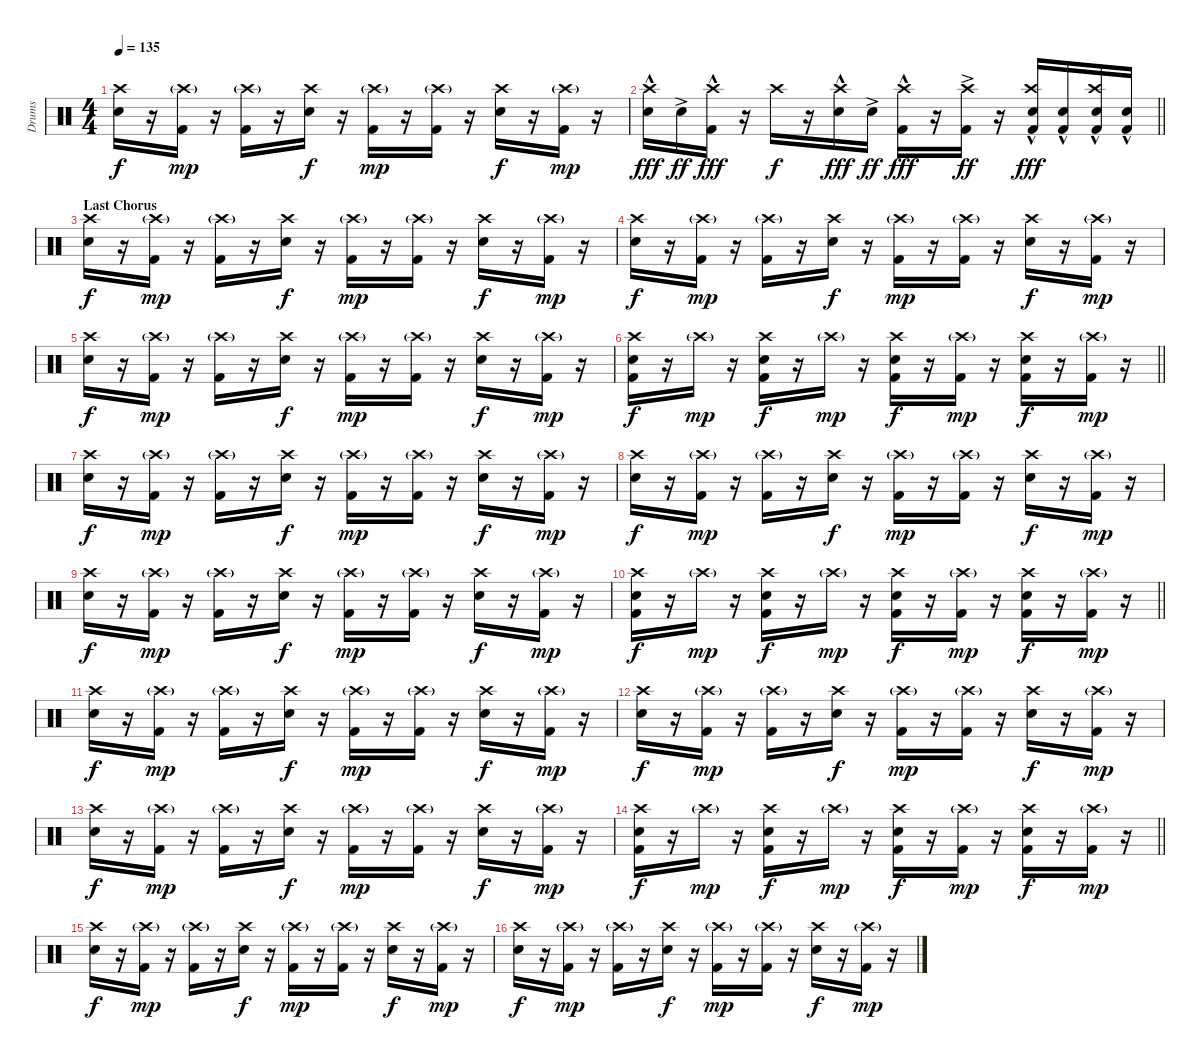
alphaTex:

\track ("Drums" "Drums") {instrument percussion}
\staff {score}
\articulation defaults
\ts (4 4)
\tempo 135
\clef neutral
\ks c
("Snare (hit) 2" "Crash high (hit)").16{dy f} r.16 ("Kick (hit) 2" "Crash high (hit)"{g}).16{dy mp} r.16 ("Kick (hit) 2" "Crash high (hit)"{g}).16 r.16 ("Snare (hit) 2" "Crash high (hit)").16{dy f} r.16 ("Kick (hit) 2" "Crash high (hit)"{g}).16{dy mp} r.16 ("Kick (hit) 2" "Crash high (hit)"{g}).16 r.16 ("Snare (hit) 2" "Crash high (hit)").16{dy f} r.16 ("Kick (hit) 2" "Crash high (hit)"{g}).16{dy mp} r.16 |
\barLineRight lightlight
("Snare (hit) 2"{hac} "Crash high (hit)").16{dy fff} "Snare (hit) 2"{ac}.16{dy ff} ("Kick (hit) 2"{hac} "Crash high (hit)").16{dy fff} r.16 "Crash high (hit)".16{dy f} r.16 ("Snare (hit) 2"{hac} "Crash high (hit)").16{dy fff} "Snare (hit) 2"{ac}.16{dy ff} ("Kick (hit) 2"{hac} "Crash high (hit)").16{dy fff} r.16 ("Kick (hit) 2"{ac} "Crash high (hit)").16{dy ff} r.16 ("Kick (hit) 2"{hac} "Snare (hit) 2"{hac} "Crash high (hit)").16{dy fff} ("Kick (hit) 2"{hac} "Snare (hit) 2"{hac}).16 ("Kick (hit) 2"{hac} "Snare (hit) 2"{hac} "Crash high (hit)").16 ("Kick (hit) 2"{hac} "Snare (hit) 2"{hac}).16 |
\section ("" "Last Chorus")
("Snare (hit) 2" "Crash high (hit)").16{dy f} r.16 ("Kick (hit) 2" "Crash high (hit)"{g}).16{dy mp} r.16 ("Kick (hit) 2" "Crash high (hit)"{g}).16 r.16 ("Snare (hit) 2" "Crash high (hit)").16{dy f} r.16 ("Kick (hit) 2" "Crash high (hit)"{g}).16{dy mp} r.16 ("Kick (hit) 2" "Crash high (hit)"{g}).16 r.16 ("Snare (hit) 2" "Crash high (hit)").16{dy f} r.16 ("Kick (hit) 2" "Crash high (hit)"{g}).16{dy mp} r.16 |
("Snare (hit) 2" "Crash high (hit)").16{dy f} r.16 ("Kick (hit) 2" "Crash high (hit)"{g}).16{dy mp} r.16 ("Kick (hit) 2" "Crash high (hit)"{g}).16 r.16 ("Snare (hit) 2" "Crash high (hit)").16{dy f} r.16 ("Kick (hit) 2" "Crash high (hit)"{g}).16{dy mp} r.16 ("Kick (hit) 2" "Crash high (hit)"{g}).16 r.16 ("Snare (hit) 2" "Crash high (hit)").16{dy f} r.16 ("Kick (hit) 2" "Crash high (hit)"{g}).16{dy mp} r.16 |
("Snare (hit) 2" "Crash high (hit)").16{dy f} r.16 ("Kick (hit) 2" "Crash high (hit)"{g}).16{dy mp} r.16 ("Kick (hit) 2" "Crash high (hit)"{g}).16 r.16 ("Snare (hit) 2" "Crash high (hit)").16{dy f} r.16 ("Kick (hit) 2" "Crash high (hit)"{g}).16{dy mp} r.16 ("Kick (hit) 2" "Crash high (hit)"{g}).16 r.16 ("Snare (hit) 2" "Crash high (hit)").16{dy f} r.16 ("Kick (hit) 2" "Crash high (hit)"{g}).16{dy mp} r.16 |
\barLineRight lightlight
("Kick (hit) 2" "Snare (hit) 2" "Crash high (hit)").16{dy f} r.16 "Crash high (hit)"{g}.16{dy mp} r.16 ("Kick (hit) 2" "Snare (hit) 2" "Crash high (hit)").16{dy f} r.16 "Crash high (hit)"{g}.16{dy mp} r.16 ("Kick (hit) 2" "Snare (hit) 2" "Crash high (hit)").16{dy f} r.16 ("Kick (hit) 2" "Crash high (hit)"{g}).16{dy mp} r.16 ("Kick (hit) 2" "Snare (hit) 2" "Crash high (hit)").16{dy f} r.16 ("Kick (hit) 2" "Crash high (hit)"{g}).16{dy mp} r.16 |
("Snare (hit) 2" "Crash high (hit)").16{dy f} r.16 ("Kick (hit) 2" "Crash high (hit)"{g}).16{dy mp} r.16 ("Kick (hit) 2" "Crash high (hit)"{g}).16 r.16 ("Snare (hit) 2" "Crash high (hit)").16{dy f} r.16 ("Kick (hit) 2" "Crash high (hit)"{g}).16{dy mp} r.16 ("Kick (hit) 2" "Crash high (hit)"{g}).16 r.16 ("Snare (hit) 2" "Crash high (hit)").16{dy f} r.16 ("Kick (hit) 2" "Crash high (hit)"{g}).16{dy mp} r.16 |
("Snare (hit) 2" "Crash high (hit)").16{dy f} r.16 ("Kick (hit) 2" "Crash high (hit)"{g}).16{dy mp} r.16 ("Kick (hit) 2" "Crash high (hit)"{g}).16 r.16 ("Snare (hit) 2" "Crash high (hit)").16{dy f} r.16 ("Kick (hit) 2" "Crash high (hit)"{g}).16{dy mp} r.16 ("Kick (hit) 2" "Crash high (hit)"{g}).16 r.16 ("Snare (hit) 2" "Crash high (hit)").16{dy f} r.16 ("Kick (hit) 2" "Crash high (hit)"{g}).16{dy mp} r.16 |
("Snare (hit) 2" "Crash high (hit)").16{dy f} r.16 ("Kick (hit) 2" "Crash high (hit)"{g}).16{dy mp} r.16 ("Kick (hit) 2" "Crash high (hit)"{g}).16 r.16 ("Snare (hit) 2" "Crash high (hit)").16{dy f} r.16 ("Kick (hit) 2" "Crash high (hit)"{g}).16{dy mp} r.16 ("Kick (hit) 2" "Crash high (hit)"{g}).16 r.16 ("Snare (hit) 2" "Crash high (hit)").16{dy f} r.16 ("Kick (hit) 2" "Crash high (hit)"{g}).16{dy mp} r.16 |
\barLineRight lightlight
("Kick (hit) 2" "Snare (hit) 2" "Crash high (hit)").16{dy f} r.16 "Crash high (hit)"{g}.16{dy mp} r.16 ("Kick (hit) 2" "Snare (hit) 2" "Crash high (hit)").16{dy f} r.16 "Crash high (hit)"{g}.16{dy mp} r.16 ("Kick (hit) 2" "Snare (hit) 2" "Crash high (hit)").16{dy f} r.16 ("Kick (hit) 2" "Crash high (hit)"{g}).16{dy mp} r.16 ("Kick (hit) 2" "Snare (hit) 2" "Crash high (hit)").16{dy f} r.16 ("Kick (hit) 2" "Crash high (hit)"{g}).16{dy mp} r.16 |
("Snare (hit) 2" "Crash high (hit)").16{dy f} r.16 ("Kick (hit) 2" "Crash high (hit)"{g}).16{dy mp} r.16 ("Kick (hit) 2" "Crash high (hit)"{g}).16 r.16 ("Snare (hit) 2" "Crash high (hit)").16{dy f} r.16 ("Kick (hit) 2" "Crash high (hit)"{g}).16{dy mp} r.16 ("Kick (hit) 2" "Crash high (hit)"{g}).16 r.16 ("Snare (hit) 2" "Crash high (hit)").16{dy f} r.16 ("Kick (hit) 2" "Crash high (hit)"{g}).16{dy mp} r.16 |
("Snare (hit) 2" "Crash high (hit)").16{dy f} r.16 ("Kick (hit) 2" "Crash high (hit)"{g}).16{dy mp} r.16 ("Kick (hit) 2" "Crash high (hit)"{g}).16 r.16 ("Snare (hit) 2" "Crash high (hit)").16{dy f} r.16 ("Kick (hit) 2" "Crash high (hit)"{g}).16{dy mp} r.16 ("Kick (hit) 2" "Crash high (hit)"{g}).16 r.16 ("Snare (hit) 2" "Crash high (hit)").16{dy f} r.16 ("Kick (hit) 2" "Crash high (hit)"{g}).16{dy mp} r.16 |
("Snare (hit) 2" "Crash high (hit)").16{dy f} r.16 ("Kick (hit) 2" "Crash high (hit)"{g}).16{dy mp} r.16 ("Kick (hit) 2" "Crash high (hit)"{g}).16 r.16 ("Snare (hit) 2" "Crash high (hit)").16{dy f} r.16 ("Kick (hit) 2" "Crash high (hit)"{g}).16{dy mp} r.16 ("Kick (hit) 2" "Crash high (hit)"{g}).16 r.16 ("Snare (hit) 2" "Crash high (hit)").16{dy f} r.16 ("Kick (hit) 2" "Crash high (hit)"{g}).16{dy mp} r.16 |
\barLineRight lightlight
("Kick (hit) 2" "Snare (hit) 2" "Crash high (hit)").16{dy f} r.16 "Crash high (hit)"{g}.16{dy mp} r.16 ("Kick (hit) 2" "Snare (hit) 2" "Crash high (hit)").16{dy f} r.16 "Crash high (hit)"{g}.16{dy mp} r.16 ("Kick (hit) 2" "Snare (hit) 2" "Crash high (hit)").16{dy f} r.16 ("Kick (hit) 2" "Crash high (hit)"{g}).16{dy mp} r.16 ("Kick (hit) 2" "Snare (hit) 2" "Crash high (hit)").16{dy f} r.16 ("Kick (hit) 2" "Crash high (hit)"{g}).16{dy mp} r.16 |
("Snare (hit) 2" "Crash high (hit)").16{dy f} r.16 ("Kick (hit) 2" "Crash high (hit)"{g}).16{dy mp} r.16 ("Kick (hit) 2" "Crash high (hit)"{g}).16 r.16 ("Snare (hit) 2" "Crash high (hit)").16{dy f} r.16 ("Kick (hit) 2" "Crash high (hit)"{g}).16{dy mp} r.16 ("Kick (hit) 2" "Crash high (hit)"{g}).16 r.16 ("Snare (hit) 2" "Crash high (hit)").16{dy f} r.16 ("Kick (hit) 2" "Crash high (hit)"{g}).16{dy mp} r.16 |
("Snare (hit) 2" "Crash high (hit)").16{dy f} r.16 ("Kick (hit) 2" "Crash high (hit)"{g}).16{dy mp} r.16 ("Kick (hit) 2" "Crash high (hit)"{g}).16 r.16 ("Snare (hit) 2" "Crash high (hit)").16{dy f} r.16 ("Kick (hit) 2" "Crash high (hit)"{g}).16{dy mp} r.16 ("Kick (hit) 2" "Crash high (hit)"{g}).16 r.16 ("Snare (hit) 2" "Crash high (hit)").16{dy f} r.16 ("Kick (hit) 2" "Crash high (hit)"{g}).16{dy mp} r.16
